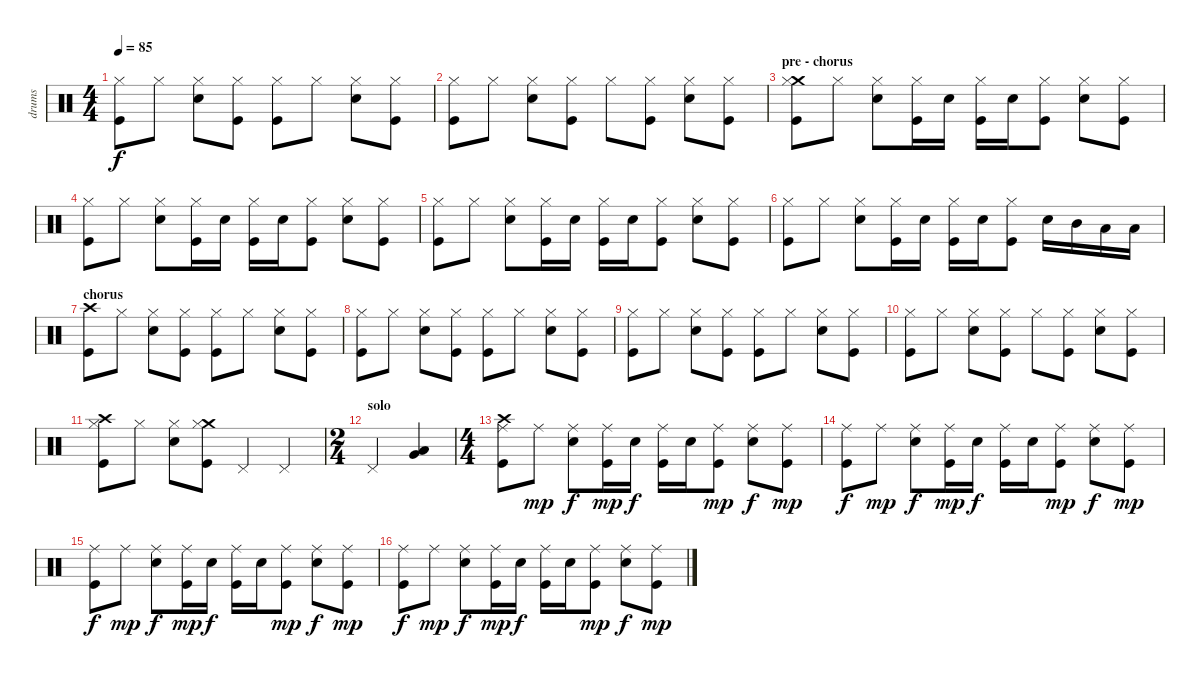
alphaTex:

\track ("drums" "drums") {instrument percussion}
\staff {score}
\articulation defaults
\ts (4 4)
\tempo 85
\clef neutral
\ks c
("Hi-Hat (closed)" "Kick (hit)").8{dy f} "Hi-Hat (closed)".8 ("Hi-Hat (closed)" "Snare (hit) 2").8 ("Hi-Hat (closed)" "Kick (hit)").8 ("Hi-Hat (closed)" "Kick (hit)").8 "Hi-Hat (closed)".8 ("Hi-Hat (closed)" "Snare (hit) 2").8 ("Hi-Hat (closed)" "Kick (hit)").8 |
("Hi-Hat (closed)" "Kick (hit)").8 "Hi-Hat (closed)".8 ("Hi-Hat (closed)" "Snare (hit) 2").8 ("Hi-Hat (closed)" "Kick (hit)").8 "Hi-Hat (closed)".8 ("Hi-Hat (closed)" "Kick (hit)").8 ("Hi-Hat (closed)" "Snare (hit) 2").8 ("Hi-Hat (closed)" "Kick (hit)").8 |
\section ("" "pre - chorus")
("Crash medium (hit)" "Hi-Hat (closed)" "Kick (hit)").8 "Hi-Hat (closed)".8 ("Hi-Hat (closed)" "Snare (hit) 2").8 ("Hi-Hat (closed)" "Kick (hit)").16 "Snare (hit) 2".16 ("Hi-Hat (closed)" "Kick (hit)").16 "Snare (hit) 2".16 ("Hi-Hat (closed)" "Kick (hit)").8 ("Hi-Hat (closed)" "Snare (hit) 2").8 ("Hi-Hat (closed)" "Kick (hit)").8 |
("Hi-Hat (closed)" "Kick (hit)").8 "Hi-Hat (closed)".8 ("Hi-Hat (closed)" "Snare (hit) 2").8 ("Hi-Hat (closed)" "Kick (hit)").16 "Snare (hit) 2".16 ("Hi-Hat (closed)" "Kick (hit)").16 "Snare (hit) 2".16 ("Hi-Hat (closed)" "Kick (hit)").8 ("Hi-Hat (closed)" "Snare (hit) 2").8 ("Hi-Hat (closed)" "Kick (hit)").8 |
("Hi-Hat (closed)" "Kick (hit)").8 "Hi-Hat (closed)".8 ("Hi-Hat (closed)" "Snare (hit) 2").8 ("Hi-Hat (closed)" "Kick (hit)").16 "Snare (hit) 2".16 ("Hi-Hat (closed)" "Kick (hit)").16 "Snare (hit) 2".16 ("Hi-Hat (closed)" "Kick (hit)").8 ("Hi-Hat (closed)" "Snare (hit) 2").8 ("Hi-Hat (closed)" "Kick (hit)").8 |
("Hi-Hat (closed)" "Kick (hit)").8 "Hi-Hat (closed)".8 ("Hi-Hat (closed)" "Snare (hit) 2").8 ("Hi-Hat (closed)" "Kick (hit)").16 "Snare (hit) 2".16 ("Hi-Hat (closed)" "Kick (hit)").16 "Snare (hit) 2".16 ("Hi-Hat (closed)" "Kick (hit)").8 "Snare (hit) 2".16 "Mid Tom (hit)".16 "Low Tom (hit)".16 "Low Tom (hit)".16 |
\section ("" "chorus")
("Crash high (hit)" "Kick (hit)").8 "Hi-Hat (closed)".8 ("Hi-Hat (closed)" "Snare (hit) 2").8 ("Hi-Hat (closed)" "Kick (hit)").8 ("Hi-Hat (closed)" "Kick (hit)").8 "Hi-Hat (closed)".8 ("Hi-Hat (closed)" "Snare (hit) 2").8 ("Hi-Hat (closed)" "Kick (hit)").8 |
("Hi-Hat (closed)" "Kick (hit)").8 "Hi-Hat (closed)".8 ("Hi-Hat (closed)" "Snare (hit) 2").8 ("Hi-Hat (closed)" "Kick (hit)").8 ("Hi-Hat (closed)" "Kick (hit)").8 "Hi-Hat (closed)".8 ("Hi-Hat (closed)" "Snare (hit) 2").8 ("Hi-Hat (closed)" "Kick (hit)").8 |
("Hi-Hat (closed)" "Kick (hit)").8 "Hi-Hat (closed)".8 ("Hi-Hat (closed)" "Snare (hit) 2").8 ("Hi-Hat (closed)" "Kick (hit)").8 ("Hi-Hat (closed)" "Kick (hit)").8 "Hi-Hat (closed)".8 ("Hi-Hat (closed)" "Snare (hit) 2").8 ("Hi-Hat (closed)" "Kick (hit)").8 |
("Hi-Hat (closed)" "Kick (hit)").8 "Hi-Hat (closed)".8 ("Hi-Hat (closed)" "Snare (hit) 2").8 ("Hi-Hat (closed)" "Kick (hit)").8 "Hi-Hat (closed)".8 ("Hi-Hat (closed)" "Kick (hit)").8 ("Hi-Hat (closed)" "Snare (hit) 2").8 ("Hi-Hat (closed)" "Kick (hit)").8 |
("Crash high (hit)" "Hi-Hat (closed)" "Kick (hit)").8 "Hi-Hat (closed)".8 ("Hi-Hat (closed)" "Snare (hit) 2").8 ("Crash medium (hit)" "Hi-Hat (closed)" "Kick (hit)").8 "Pedal Hi-Hat (hit)".4{volume 12} "Pedal Hi-Hat (hit)".4 |
\ts (2 4)
\section ("" "solo")
"Pedal Hi-Hat (hit)".4 ("Low Floor Tom (hit)" "Very Low Tom (hit)").4{volume 16} |
\ts (4 4)
("Crash high (hit)" "Ride (middle)" "Kick (hit)").8 "Ride (middle)".8{dy mp} ("Ride (middle)" "Snare (hit) 2").8{dy f} ("Ride (middle)" "Kick (hit)").16{dy mp} "Snare (hit) 2".16{dy f} ("Ride (middle)" "Kick (hit)").16 "Snare (hit) 2".16 ("Ride (middle)" "Kick (hit)").8{dy mp} ("Ride (middle)" "Snare (hit) 2").8{dy f} ("Ride (middle)" "Kick (hit)").8{dy mp} |
("Ride (middle)" "Kick (hit)").8{dy f} "Ride (middle)".8{dy mp} ("Ride (middle)" "Snare (hit) 2").8{dy f} ("Ride (middle)" "Kick (hit)").16{dy mp} "Snare (hit) 2".16{dy f} ("Ride (middle)" "Kick (hit)").16 "Snare (hit) 2".16 ("Ride (middle)" "Kick (hit)").8{dy mp} ("Ride (middle)" "Snare (hit) 2").8{dy f} ("Ride (middle)" "Kick (hit)").8{dy mp} |
("Ride (middle)" "Kick (hit)").8{dy f} "Ride (middle)".8{dy mp} ("Ride (middle)" "Snare (hit) 2").8{dy f} ("Ride (middle)" "Kick (hit)").16{dy mp} "Snare (hit) 2".16{dy f} ("Ride (middle)" "Kick (hit)").16 "Snare (hit) 2".16 ("Ride (middle)" "Kick (hit)").8{dy mp} ("Ride (middle)" "Snare (hit) 2").8{dy f} ("Ride (middle)" "Kick (hit)").8{dy mp} |
("Ride (middle)" "Kick (hit)").8{dy f} "Ride (middle)".8{dy mp} ("Ride (middle)" "Snare (hit) 2").8{dy f} ("Ride (middle)" "Kick (hit)").16{dy mp} "Snare (hit) 2".16{dy f} ("Ride (middle)" "Kick (hit)").16 "Snare (hit) 2".16 ("Ride (middle)" "Kick (hit)").8{dy mp} ("Ride (middle)" "Snare (hit) 2").8{dy f} ("Ride (middle)" "Kick (hit)").8{dy mp}
